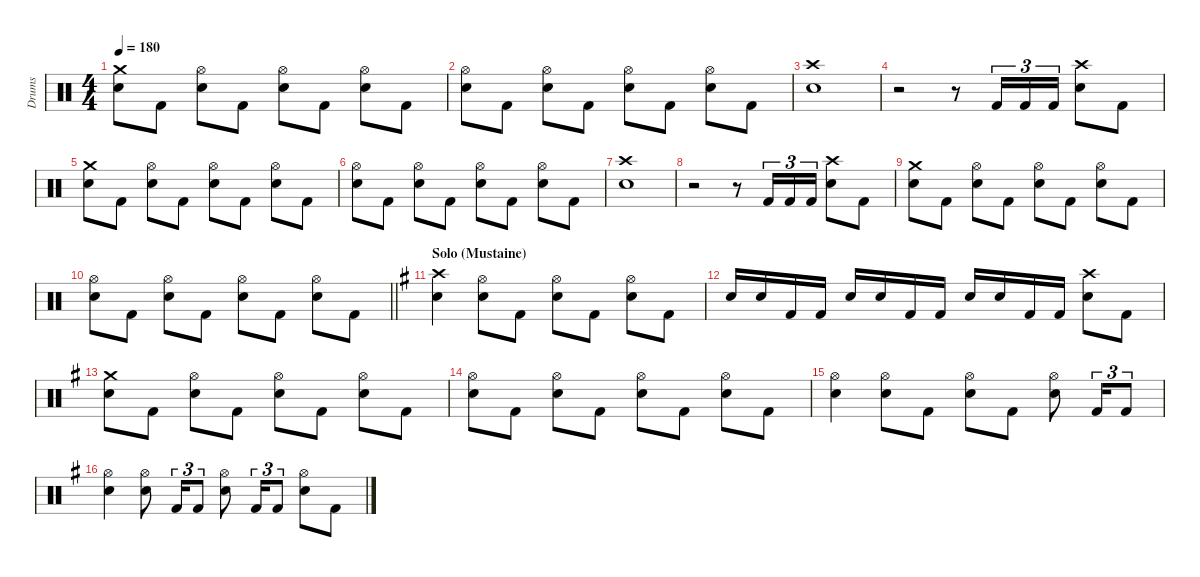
\defaultSystemsLayout 4
\hideDynamics
\bracketExtendMode nobrackets
\firstSystemTrackNameMode fullname
\otherSystemsTrackNameOrientation horizontal
\track ("Drums" "drm.") {instrument percussion}
\staff {score}
\articulation defaults
\ts (4 4)
\tempo 180
\clef neutral
\ks c
("Crash medium (hit)" "Snare (hit) 2").8{dy f beam Down} "Kick (hit) 2".8{beam Down} ("Hi-Hat (open)" "Snare (hit) 2").8{beam Down} "Kick (hit) 2".8{beam Down} ("Hi-Hat (open)" "Snare (hit) 2").8{beam Down} "Kick (hit) 2".8{beam Down} ("Hi-Hat (open)" "Snare (hit) 2").8{beam Down} "Kick (hit) 2".8{beam Down} |
("Hi-Hat (open)" "Snare (hit) 2").8{beam Down} "Kick (hit) 2".8{beam Down} ("Hi-Hat (open)" "Snare (hit) 2").8{beam Down} "Kick (hit) 2".8{beam Down} ("Hi-Hat (open)" "Snare (hit) 2").8{beam Down} "Kick (hit) 2".8{beam Down} ("Hi-Hat (open)" "Snare (hit) 2").8{beam Down} "Kick (hit) 2".8{beam Down} |
("Crash high (hit)" "Snare (hit) 2").1{beam Down} |
r.2{beam Down} r.8{beam Down} "Kick (hit) 2".16{tu (3 2) beam Up} "Kick (hit) 2".16{tu (3 2) beam Up} "Kick (hit) 2".16{tu (3 2) beam Up} ("Crash high (hit)" "Snare (hit) 2").8{beam Down} "Kick (hit) 2".8{beam Down} |
("Crash medium (hit)" "Snare (hit) 2").8{beam Down} "Kick (hit) 2".8{beam Down} ("Hi-Hat (open)" "Snare (hit) 2").8{beam Down} "Kick (hit) 2".8{beam Down} ("Hi-Hat (open)" "Snare (hit) 2").8{beam Down} "Kick (hit) 2".8{beam Down} ("Hi-Hat (open)" "Snare (hit) 2").8{beam Down} "Kick (hit) 2".8{beam Down} |
("Hi-Hat (open)" "Snare (hit) 2").8{beam Down} "Kick (hit) 2".8{beam Down} ("Hi-Hat (open)" "Snare (hit) 2").8{beam Down} "Kick (hit) 2".8{beam Down} ("Hi-Hat (open)" "Snare (hit) 2").8{beam Down} "Kick (hit) 2".8{beam Down} ("Hi-Hat (open)" "Snare (hit) 2").8{beam Down} "Kick (hit) 2".8{beam Down} |
("Crash high (hit)" "Snare (hit) 2").1{beam Down} |
r.2{beam Down} r.8{beam Down} "Kick (hit) 2".16{tu (3 2) beam Up} "Kick (hit) 2".16{tu (3 2) beam Up} "Kick (hit) 2".16{tu (3 2) beam Up} ("Crash high (hit)" "Snare (hit) 2").8{beam Down} "Kick (hit) 2".8{beam Down} |
("Crash medium (hit)" "Snare (hit) 2").8{beam Down} "Kick (hit) 2".8{beam Down} ("Hi-Hat (open)" "Snare (hit) 2").8{beam Down} "Kick (hit) 2".8{beam Down} ("Hi-Hat (open)" "Snare (hit) 2").8{beam Down} "Kick (hit) 2".8{beam Down} ("Hi-Hat (open)" "Snare (hit) 2").8{beam Down} "Kick (hit) 2".8{beam Down} |
\barLineRight lightlight
("Hi-Hat (open)" "Snare (hit) 2").8{beam Down} "Kick (hit) 2".8{beam Down} ("Hi-Hat (open)" "Snare (hit) 2").8{beam Down} "Kick (hit) 2".8{beam Down} ("Hi-Hat (open)" "Snare (hit) 2").8{beam Down} "Kick (hit) 2".8{beam Down} ("Hi-Hat (open)" "Snare (hit) 2").8{beam Down} "Kick (hit) 2".8{beam Down} |
\section ("" "Solo (Mustaine)")
\ks g
("Crash high (hit)"{acc forcenatural} "Snare (hit) 2"{acc forcenatural}).4{beam Down} ("Hi-Hat (open)"{acc forcenatural} "Snare (hit) 2"{acc forcenatural}).8{beam Down} "Kick (hit) 2"{acc forcenatural}.8{beam Down} ("Hi-Hat (open)"{acc forcenatural} "Snare (hit) 2"{acc forcenatural}).8{beam Down} "Kick (hit) 2"{acc forcenatural}.8{beam Down} ("Hi-Hat (open)"{acc forcenatural} "Snare (hit) 2"{acc forcenatural}).8{beam Down} "Kick (hit) 2"{acc forcenatural}.8{beam Down} |
"Snare (hit) 2"{acc forcenatural}.16{beam Up} "Snare (hit) 2"{acc forcenatural}.16{beam Up} "Kick (hit) 2"{acc forcenatural}.16{beam Up} "Kick (hit) 2"{acc forcenatural}.16{beam Up} "Snare (hit) 2"{acc forcenatural}.16{beam Up} "Snare (hit) 2"{acc forcenatural}.16{beam Up} "Kick (hit) 2"{acc forcenatural}.16{beam Up} "Kick (hit) 2"{acc forcenatural}.16{beam Up} "Snare (hit) 2"{acc forcenatural}.16{beam Up} "Snare (hit) 2"{acc forcenatural}.16{beam Up} "Kick (hit) 2"{acc forcenatural}.16{beam Up} "Kick (hit) 2"{acc forcenatural}.16{beam Up} ("Crash high (hit)"{acc forcenatural} "Snare (hit) 2"{acc forcenatural}).8{beam Down} "Kick (hit) 2"{acc forcenatural}.8{beam Down} |
("Crash medium (hit)"{acc forcenatural} "Snare (hit) 2"{acc forcenatural}).8{beam Down} "Kick (hit) 2"{acc forcenatural}.8{beam Down} ("Hi-Hat (open)"{acc forcenatural} "Snare (hit) 2"{acc forcenatural}).8{beam Down} "Kick (hit) 2"{acc forcenatural}.8{beam Down} ("Hi-Hat (open)"{acc forcenatural} "Snare (hit) 2"{acc forcenatural}).8{beam Down} "Kick (hit) 2"{acc forcenatural}.8{beam Down} ("Hi-Hat (open)"{acc forcenatural} "Snare (hit) 2"{acc forcenatural}).8{beam Down} "Kick (hit) 2"{acc forcenatural}.8{beam Down} |
("Hi-Hat (open)"{acc forcenatural} "Snare (hit) 2"{acc forcenatural}).8{beam Down} "Kick (hit) 2"{acc forcenatural}.8{beam Down} ("Hi-Hat (open)"{acc forcenatural} "Snare (hit) 2"{acc forcenatural}).8{beam Down} "Kick (hit) 2"{acc forcenatural}.8{beam Down} ("Hi-Hat (open)"{acc forcenatural} "Snare (hit) 2"{acc forcenatural}).8{beam Down} "Kick (hit) 2"{acc forcenatural}.8{beam Down} ("Hi-Hat (open)"{acc forcenatural} "Snare (hit) 2"{acc forcenatural}).8{beam Down} "Kick (hit) 2"{acc forcenatural}.8{beam Down} |
("Hi-Hat (open)"{acc forcenatural} "Snare (hit) 2"{acc forcenatural}).4{beam Down} ("Hi-Hat (open)"{acc forcenatural} "Snare (hit) 2"{acc forcenatural}).8{beam Down} "Kick (hit) 2"{acc forcenatural}.8{beam Down} ("Hi-Hat (open)"{acc forcenatural} "Snare (hit) 2"{acc forcenatural}).8{beam Down} "Kick (hit) 2"{acc forcenatural}.8{beam Down} ("Hi-Hat (open)"{acc forcenatural} "Snare (hit) 2"{acc forcenatural}).8{beam Down} "Kick (hit) 2"{acc forcenatural}.16{tu (3 2) beam Up} "Kick (hit) 2"{acc forcenatural}.8{tu (3 2) beam Up} |
("Hi-Hat (open)"{acc forcenatural} "Snare (hit) 2"{acc forcenatural}).4{beam Down} ("Hi-Hat (open)"{acc forcenatural} "Snare (hit) 2"{acc forcenatural}).8{beam Down} "Kick (hit) 2"{acc forcenatural}.16{tu (3 2) beam Up} "Kick (hit) 2"{acc forcenatural}.8{tu (3 2) beam Up} ("Hi-Hat (open)"{acc forcenatural} "Snare (hit) 2"{acc forcenatural}).8{beam Down} "Kick (hit) 2"{acc forcenatural}.16{tu (3 2) beam Up} "Kick (hit) 2"{acc forcenatural}.8{tu (3 2) beam Up} ("Hi-Hat (open)"{acc forcenatural} "Snare (hit) 2"{acc forcenatural}).8{beam Down} "Kick (hit) 2"{acc forcenatural}.8{beam Down}
